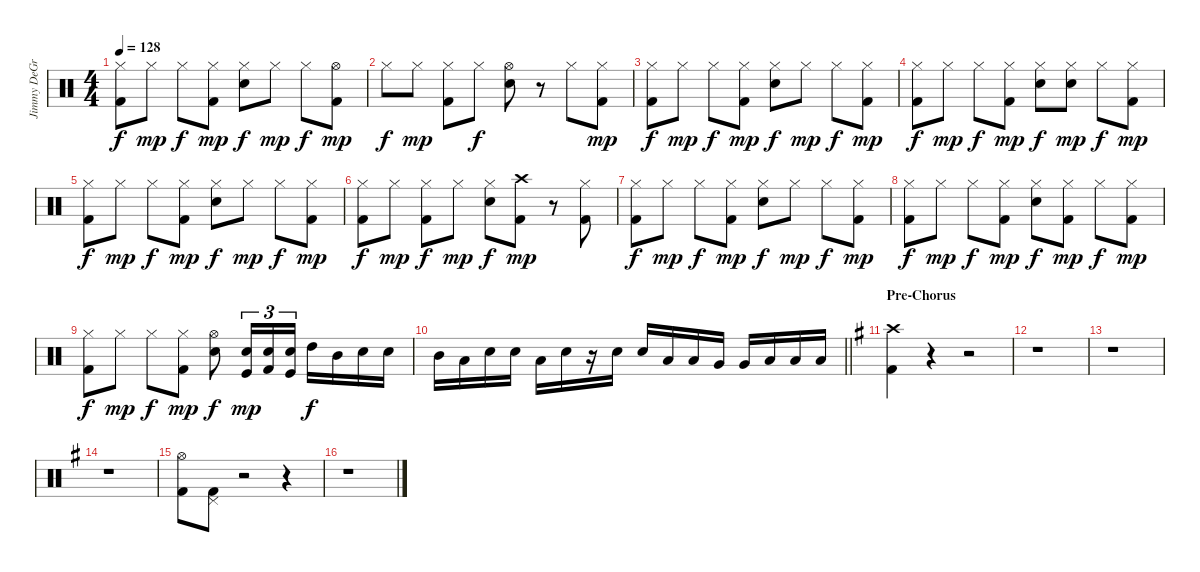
\track ("Jimmy DeGrasso" "Jimmy DeGr") {instrument percussion}
\staff {score}
\articulation defaults
\ts (4 4)
\tempo 128
\clef neutral
\ks c
("Hi-Hat (closed)" "Kick (hit) 2").8{dy f} "Hi-Hat (closed)".8{dy mp} "Hi-Hat (closed)".8{dy f} ("Hi-Hat (closed)" "Kick (hit) 2").8{dy mp} ("Hi-Hat (closed)" "Snare (hit) 2").8{dy f} "Hi-Hat (closed)".8{dy mp} "Hi-Hat (closed)".8{dy f} ("Hi-Hat (open)" "Kick (hit) 2").8{dy mp} |
"Hi-Hat (closed)".8{dy f} "Hi-Hat (closed)".8{dy mp} ("Hi-Hat (closed)" "Kick (hit) 2").8 "Hi-Hat (closed)".8{dy f} ("Hi-Hat (open)" "Snare (hit) 2").8 r.8 "Hi-Hat (closed)".8 ("Hi-Hat (closed)" "Kick (hit) 2").8{dy mp} |
("Hi-Hat (closed)" "Kick (hit) 2").8{dy f} "Hi-Hat (closed)".8{dy mp} "Hi-Hat (closed)".8{dy f} ("Hi-Hat (closed)" "Kick (hit) 2").8{dy mp} ("Hi-Hat (closed)" "Snare (hit) 2").8{dy f} "Hi-Hat (closed)".8{dy mp} "Hi-Hat (closed)".8{dy f} ("Hi-Hat (closed)" "Kick (hit) 2").8{dy mp} |
("Hi-Hat (closed)" "Kick (hit) 2").8{dy f} "Hi-Hat (closed)".8{dy mp} "Hi-Hat (closed)".8{dy f} ("Hi-Hat (closed)" "Kick (hit) 2").8{dy mp} ("Hi-Hat (closed)" "Snare (hit) 2").8{dy f} ("Hi-Hat (closed)" "Snare (hit) 2").8{dy mp} "Hi-Hat (closed)".8{dy f} ("Hi-Hat (closed)" "Kick (hit) 2").8{dy mp} |
("Hi-Hat (closed)" "Kick (hit) 2").8{dy f} "Hi-Hat (closed)".8{dy mp} "Hi-Hat (closed)".8{dy f} ("Hi-Hat (closed)" "Kick (hit) 2").8{dy mp} ("Hi-Hat (closed)" "Snare (hit) 2").8{dy f} "Hi-Hat (closed)".8{dy mp} "Hi-Hat (closed)".8{dy f} ("Hi-Hat (closed)" "Kick (hit) 2").8{dy mp} |
("Hi-Hat (closed)" "Kick (hit) 2").8{dy f} "Hi-Hat (closed)".8{dy mp} ("Hi-Hat (closed)" "Kick (hit) 2").8{dy f} "Hi-Hat (closed)".8{dy mp} ("Hi-Hat (closed)" "Snare (hit) 2").8{dy f} ("Crash high (hit)" "Kick (hit) 2").8{dy mp} r.8 ("Hi-Hat (closed)" "Kick (hit) 2").8 |
("Hi-Hat (closed)" "Kick (hit) 2").8{dy f} "Hi-Hat (closed)".8{dy mp} "Hi-Hat (closed)".8{dy f} ("Hi-Hat (closed)" "Kick (hit) 2").8{dy mp} ("Hi-Hat (closed)" "Snare (hit) 2").8{dy f} "Hi-Hat (closed)".8{dy mp} "Hi-Hat (closed)".8{dy f} ("Hi-Hat (closed)" "Kick (hit) 2").8{dy mp} |
("Hi-Hat (closed)" "Kick (hit) 2").8{dy f} "Hi-Hat (closed)".8{dy mp} "Hi-Hat (closed)".8{dy f} ("Hi-Hat (closed)" "Kick (hit) 2").8{dy mp} ("Hi-Hat (closed)" "Snare (hit) 2").8{dy f} ("Hi-Hat (closed)" "Kick (hit) 2").8{dy mp} "Hi-Hat (closed)".8{dy f} ("Hi-Hat (closed)" "Kick (hit) 2").8{dy mp} |
("Hi-Hat (closed)" "Kick (hit) 2").8{dy f} "Hi-Hat (closed)".8{dy mp} "Hi-Hat (closed)".8{dy f} ("Hi-Hat (closed)" "Kick (hit) 2").8{dy mp} ("Hi-Hat (open)" "Snare (hit) 2").8{dy f} ("Snare (hit) 2" "Kick (hit)").16{tu (3 2) dy mp} ("Snare (hit) 2" "Kick (hit) 2").16{tu (3 2)} ("Snare (hit) 2" "Kick (hit)").16{tu (3 2)} "High Tom (hit)".16{dy f} "Mid Tom (hit)".16 "Snare (hit) 2".16 "Snare (hit) 2".16 |
\barLineRight lightlight "Mid Tom (hit)".16 "Low Tom (hit)".16 "Snare (hit) 2".16 "Snare (hit) 2".16 "Low Tom (hit)".16 "Snare (hit) 2".16
r.16 "Snare (hit) 2".16 "Snare (hit) 2".16 "Low Tom (hit)".16 "Low Tom (hit)".16 "Very Low Tom (hit)".16 "Very Low Tom (hit)".16 "Low Floor Tom (hit)".16 "Low Floor Tom (hit)".16 "Low Floor Tom (hit)".16 |
\section ("" "Pre-Chorus")
\ks g
("Crash high (hit)" "Kick (hit) 2").4 r.4 r.2 |
r.1 |
r.1 |
r.1 |
("Hi-Hat (open)" "Kick (hit) 2").8 ("Pedal Hi-Hat (hit)" "Kick (hit) 2").8 r.2 r.4 |
r.1
